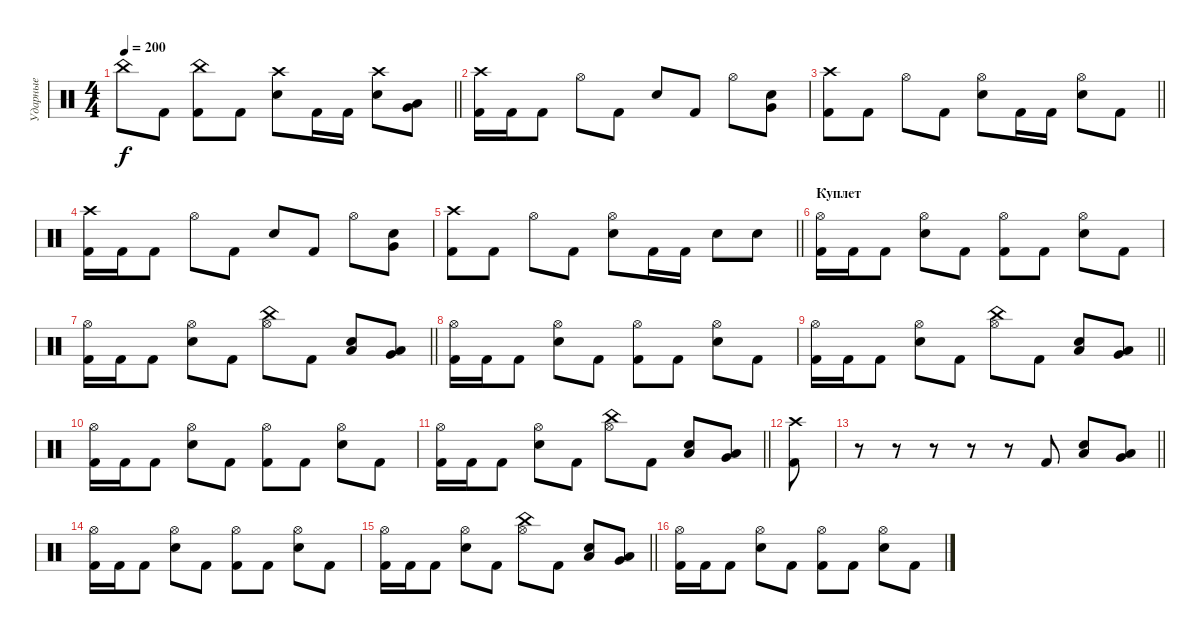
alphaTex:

\track ("Ударные" "Ударные") {instrument percussion}
\staff {score}
\articulation defaults
\ts (4 4)
\tempo 200
\clef neutral
\barLineRight lightlight
\ks c "China (hit)".8{dy f} "Kick (hit) 2".8
("Kick (hit) 2" "China (hit)").8 "Kick (hit) 2".8 ("Crash high (hit)" "Electric Snare (hit)").8 "Kick (hit) 2".16 "Kick (hit) 2".16 ("Crash high (hit)" "Electric Snare (hit)").8 ("Low Floor Tom (hit)" "Very Low Tom (hit)").8 |
("Kick (hit) 2" "Crash high (hit)").16 "Kick (hit) 2".16 "Kick (hit) 2".8 "Hi-Hat (open)".8 "Kick (hit) 2".8 "Electric Snare (hit)".8 "Kick (hit) 2".8 "Hi-Hat (open)".8 ("Very Low Tom (hit)" "Electric Snare (hit)").8 |
\barLineRight lightlight
("Kick (hit) 2" "Crash high (hit)").8 "Kick (hit) 2".8 "Hi-Hat (open)".8 "Kick (hit) 2".8 ("Hi-Hat (open)" "Electric Snare (hit)").8 "Kick (hit) 2".16 "Kick (hit) 2".16 ("Hi-Hat (open)" "Electric Snare (hit)").8 "Kick (hit) 2".8 |
("Kick (hit) 2" "Crash high (hit)").16 "Kick (hit) 2".16 "Kick (hit) 2".8 "Hi-Hat (open)".8 "Kick (hit) 2".8 "Electric Snare (hit)".8 "Kick (hit) 2".8 "Hi-Hat (open)".8 ("Very Low Tom (hit)" "Electric Snare (hit)").8 |
\barLineRight lightlight
("Kick (hit) 2" "Crash high (hit)").8 "Kick (hit) 2".8 "Hi-Hat (open)".8 "Kick (hit) 2".8 ("Hi-Hat (open)" "Electric Snare (hit)").8 "Kick (hit) 2".16 "Kick (hit) 2".16 "Electric Snare (hit)".8 "Electric Snare (hit)".8 |
\section ("" "Куплет")
("Hi-Hat (open)" "Kick (hit) 2").16 "Kick (hit) 2".16 "Kick (hit) 2".8 ("Electric Snare (hit)" "Hi-Hat (open)").8 "Kick (hit) 2".8 ("Hi-Hat (open)" "Kick (hit) 2").8 "Kick (hit) 2".8 ("Hi-Hat (open)" "Electric Snare (hit)").8 "Kick (hit) 2".8 |
\barLineRight lightlight
("Hi-Hat (open)" "Kick (hit) 2").16 "Kick (hit) 2".16 "Kick (hit) 2".8 ("Electric Snare (hit)" "Hi-Hat (open)").8 "Kick (hit) 2".8 ("China (hit)" "Hi-Hat (open)").8 "Kick (hit) 2".8 ("Electric Snare (hit)" "Low Floor Tom (hit)").8 ("Very Low Tom (hit)" "Low Floor Tom (hit)").8 |
("Hi-Hat (open)" "Kick (hit) 2").16 "Kick (hit) 2".16 "Kick (hit) 2".8 ("Electric Snare (hit)" "Hi-Hat (open)").8 "Kick (hit) 2".8 ("Hi-Hat (open)" "Kick (hit) 2").8 "Kick (hit) 2".8 ("Hi-Hat (open)" "Electric Snare (hit)").8 "Kick (hit) 2".8 |
\barLineRight lightlight
("Hi-Hat (open)" "Kick (hit) 2").16 "Kick (hit) 2".16 "Kick (hit) 2".8 ("Electric Snare (hit)" "Hi-Hat (open)").8 "Kick (hit) 2".8 ("China (hit)" "Hi-Hat (open)").8 "Kick (hit) 2".8 ("Electric Snare (hit)" "Low Floor Tom (hit)").8 ("Very Low Tom (hit)" "Low Floor Tom (hit)").8 |
("Hi-Hat (open)" "Kick (hit) 2").16 "Kick (hit) 2".16 "Kick (hit) 2".8 ("Electric Snare (hit)" "Hi-Hat (open)").8 "Kick (hit) 2".8 ("Hi-Hat (open)" "Kick (hit) 2").8 "Kick (hit) 2".8 ("Hi-Hat (open)" "Electric Snare (hit)").8 "Kick (hit) 2".8 |
\barLineRight lightlight
("Hi-Hat (open)" "Kick (hit) 2").16 "Kick (hit) 2".16 "Kick (hit) 2".8 ("Electric Snare (hit)" "Hi-Hat (open)").8 "Kick (hit) 2".8 ("China (hit)" "Hi-Hat (open)").8 "Kick (hit) 2".8 ("Electric Snare (hit)" "Low Floor Tom (hit)").8 ("Very Low Tom (hit)" "Low Floor Tom (hit)").8 |
("Kick (hit) 2" "Crash high (hit)").8 |
\barLineRight lightlight
r.8 r.8 r.8 r.8 r.8 "Kick (hit) 2".8 ("Electric Snare (hit)" "Low Floor Tom (hit)").8 ("Very Low Tom (hit)" "Low Floor Tom (hit)").8 |
("Hi-Hat (open)" "Kick (hit) 2").16 "Kick (hit) 2".16 "Kick (hit) 2".8 ("Electric Snare (hit)" "Hi-Hat (open)").8 "Kick (hit) 2".8 ("Hi-Hat (open)" "Kick (hit) 2").8 "Kick (hit) 2".8 ("Hi-Hat (open)" "Electric Snare (hit)").8 "Kick (hit) 2".8 |
\barLineRight lightlight
("Hi-Hat (open)" "Kick (hit) 2").16 "Kick (hit) 2".16 "Kick (hit) 2".8 ("Electric Snare (hit)" "Hi-Hat (open)").8 "Kick (hit) 2".8 ("China (hit)" "Hi-Hat (open)").8 "Kick (hit) 2".8 ("Electric Snare (hit)" "Low Floor Tom (hit)").8 ("Very Low Tom (hit)" "Low Floor Tom (hit)").8 |
("Hi-Hat (open)" "Kick (hit) 2").16 "Kick (hit) 2".16 "Kick (hit) 2".8 ("Electric Snare (hit)" "Hi-Hat (open)").8 "Kick (hit) 2".8 ("Hi-Hat (open)" "Kick (hit) 2").8 "Kick (hit) 2".8 ("Hi-Hat (open)" "Electric Snare (hit)").8 "Kick (hit) 2".8
